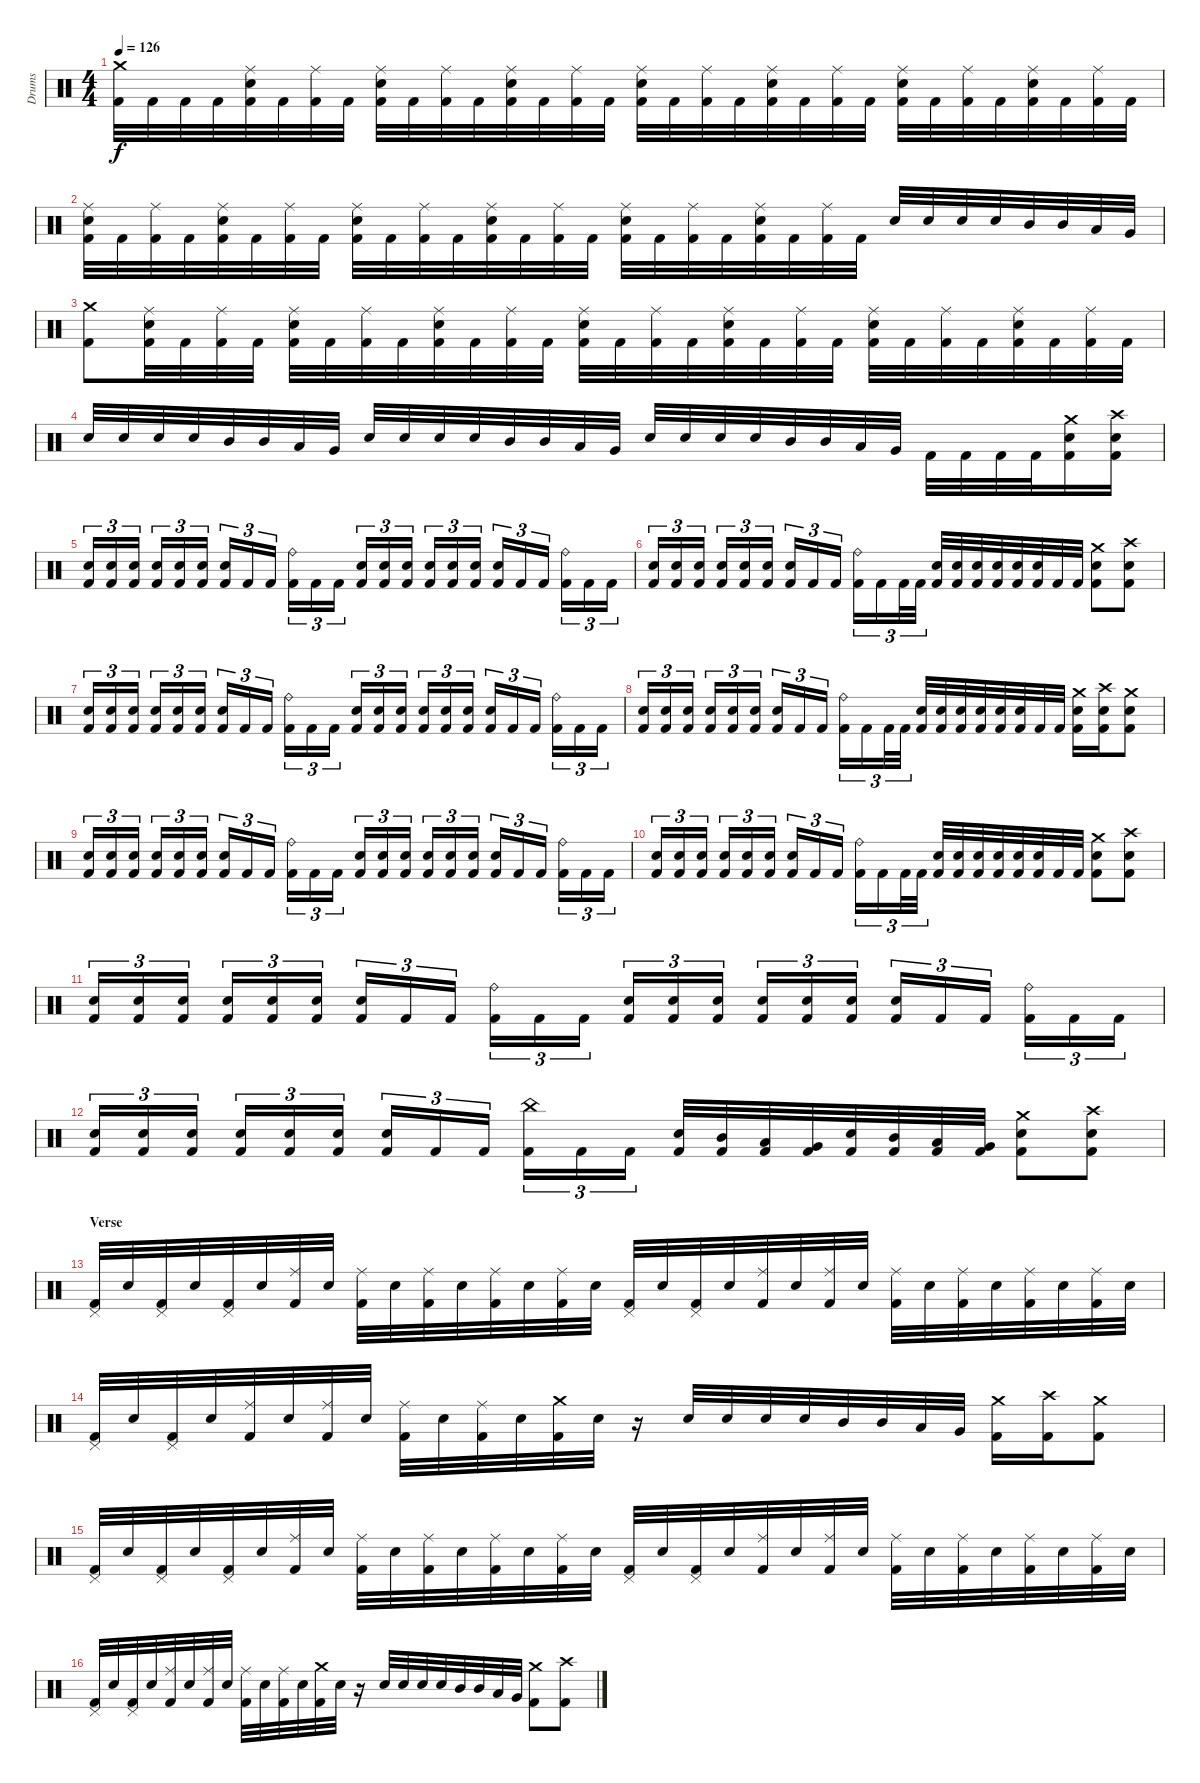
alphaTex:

\track ("Drums" "Drums") {instrument percussion}
\staff {score}
\articulation defaults
\ts (4 4)
\tempo 126
\clef neutral
\ks c
("Crash medium (hit)" "Kick (hit) 2").32{dy f} "Kick (hit) 2".32 "Kick (hit) 2".32 "Kick (hit) 2".32 ("Ride (middle)" "Electric Snare (hit)" "Kick (hit) 2").32 "Kick (hit) 2".32 ("Ride (middle)" "Kick (hit) 2").32 "Kick (hit) 2".32 ("Ride (middle)" "Electric Snare (hit)" "Kick (hit) 2").32 "Kick (hit) 2".32 ("Ride (middle)" "Kick (hit) 2").32 "Kick (hit) 2".32 ("Ride (middle)" "Electric Snare (hit)" "Kick (hit) 2").32 "Kick (hit) 2".32 ("Ride (middle)" "Kick (hit) 2").32 "Kick (hit) 2".32 ("Ride (middle)" "Electric Snare (hit)" "Kick (hit) 2").32 "Kick (hit) 2".32 ("Ride (middle)" "Kick (hit) 2").32 "Kick (hit) 2".32 ("Ride (middle)" "Electric Snare (hit)" "Kick (hit) 2").32 "Kick (hit) 2".32 ("Ride (middle)" "Kick (hit) 2").32 "Kick (hit) 2".32 ("Ride (middle)" "Electric Snare (hit)" "Kick (hit) 2").32 "Kick (hit) 2".32 ("Ride (middle)" "Kick (hit) 2").32 "Kick (hit) 2".32 ("Ride (middle)" "Electric Snare (hit)" "Kick (hit) 2").32 "Kick (hit) 2".32 ("Ride (middle)" "Kick (hit) 2").32 "Kick (hit) 2".32 |
("Ride (middle)" "Electric Snare (hit)" "Kick (hit) 2").32 "Kick (hit) 2".32 ("Ride (middle)" "Kick (hit) 2").32 "Kick (hit) 2".32 ("Ride (middle)" "Electric Snare (hit)" "Kick (hit) 2").32 "Kick (hit) 2".32 ("Ride (middle)" "Kick (hit) 2").32 "Kick (hit) 2".32 ("Ride (middle)" "Electric Snare (hit)" "Kick (hit) 2").32 "Kick (hit) 2".32 ("Ride (middle)" "Kick (hit) 2").32 "Kick (hit) 2".32 ("Ride (middle)" "Electric Snare (hit)" "Kick (hit) 2").32 "Kick (hit) 2".32 ("Ride (middle)" "Kick (hit) 2").32 "Kick (hit) 2".32 ("Ride (middle)" "Electric Snare (hit)" "Kick (hit) 2").32 "Kick (hit) 2".32 ("Ride (middle)" "Kick (hit) 2").32 "Kick (hit) 2".32 ("Ride (middle)" "Electric Snare (hit)" "Kick (hit) 2").32 "Kick (hit) 2".32 ("Ride (middle)" "Kick (hit) 2").32 "Kick (hit) 2".32 "Electric Snare (hit)".32 "Electric Snare (hit)".32 "Electric Snare (hit)".32 "Electric Snare (hit)".32 "Mid Tom (hit)".32 "Mid Tom (hit)".32 "Low Tom (hit)".32 "Very Low Tom (hit)".32 |
("Crash medium (hit)" "Kick (hit) 2").8 ("Ride (middle)" "Electric Snare (hit)" "Kick (hit) 2").32 "Kick (hit) 2".32 ("Ride (middle)" "Kick (hit) 2").32 "Kick (hit) 2".32 ("Ride (middle)" "Electric Snare (hit)" "Kick (hit) 2").32 "Kick (hit) 2".32 ("Ride (middle)" "Kick (hit) 2").32 "Kick (hit) 2".32 ("Ride (middle)" "Electric Snare (hit)" "Kick (hit) 2").32 "Kick (hit) 2".32 ("Ride (middle)" "Kick (hit) 2").32 "Kick (hit) 2".32 ("Ride (middle)" "Electric Snare (hit)" "Kick (hit) 2").32 "Kick (hit) 2".32 ("Ride (middle)" "Kick (hit) 2").32 "Kick (hit) 2".32 ("Ride (middle)" "Electric Snare (hit)" "Kick (hit) 2").32 "Kick (hit) 2".32 ("Ride (middle)" "Kick (hit) 2").32 "Kick (hit) 2".32 ("Ride (middle)" "Electric Snare (hit)" "Kick (hit) 2").32 "Kick (hit) 2".32 ("Ride (middle)" "Kick (hit) 2").32 "Kick (hit) 2".32 ("Ride (middle)" "Electric Snare (hit)" "Kick (hit) 2").32 "Kick (hit) 2".32 ("Ride (middle)" "Kick (hit) 2").32 "Kick (hit) 2".32 |
"Electric Snare (hit)".32 "Electric Snare (hit)".32 "Electric Snare (hit)".32 "Electric Snare (hit)".32 "Mid Tom (hit)".32 "Mid Tom (hit)".32 "Low Tom (hit)".32 "Very Low Tom (hit)".32 "Electric Snare (hit)".32 "Electric Snare (hit)".32 "Electric Snare (hit)".32 "Electric Snare (hit)".32 "Mid Tom (hit)".32 "Mid Tom (hit)".32 "Low Tom (hit)".32 "Very Low Tom (hit)".32 "Electric Snare (hit)".32 "Electric Snare (hit)".32 "Electric Snare (hit)".32 "Electric Snare (hit)".32 "Mid Tom (hit)".32 "Mid Tom (hit)".32 "Low Tom (hit)".32 "Very Low Tom (hit)".32 "Kick (hit) 2".32 "Kick (hit) 2".32 "Kick (hit) 2".32 "Kick (hit) 2".32 ("Crash medium (hit)" "Electric Snare (hit)" "Kick (hit) 2").16 ("Crash high (hit)" "Electric Snare (hit)" "Kick (hit) 2").16 |
\section ("" "")
("Electric Snare (hit)" "Kick (hit) 2").16{tu (3 2)} ("Electric Snare (hit)" "Kick (hit) 2").16{tu (3 2)} ("Electric Snare (hit)" "Kick (hit) 2").16{tu (3 2)} ("Electric Snare (hit)" "Kick (hit) 2").16{tu (3 2)} ("Electric Snare (hit)" "Kick (hit) 2").16{tu (3 2)} ("Electric Snare (hit)" "Kick (hit) 2").16{tu (3 2)} ("Electric Snare (hit)" "Kick (hit) 2").16{tu (3 2)} "Kick (hit) 2".16{tu (3 2)} "Kick (hit) 2".16{tu (3 2)} ("Ride (bell)" "Kick (hit) 2").16{tu (3 2)} "Kick (hit) 2".16{tu (3 2)} "Kick (hit) 2".16{tu (3 2)} ("Electric Snare (hit)" "Kick (hit) 2").16{tu (3 2)} ("Electric Snare (hit)" "Kick (hit) 2").16{tu (3 2)} ("Electric Snare (hit)" "Kick (hit) 2").16{tu (3 2)} ("Electric Snare (hit)" "Kick (hit) 2").16{tu (3 2)} ("Electric Snare (hit)" "Kick (hit) 2").16{tu (3 2)} ("Electric Snare (hit)" "Kick (hit) 2").16{tu (3 2)} ("Electric Snare (hit)" "Kick (hit) 2").16{tu (3 2)} "Kick (hit) 2".16{tu (3 2)} "Kick (hit) 2".16{tu (3 2)} ("Ride (bell)" "Kick (hit) 2").16{tu (3 2)} "Kick (hit) 2".16{tu (3 2)} "Kick (hit) 2".16{tu (3 2)} |
("Electric Snare (hit)" "Kick (hit) 2").16{tu (3 2)} ("Electric Snare (hit)" "Kick (hit) 2").16{tu (3 2)} ("Electric Snare (hit)" "Kick (hit) 2").16{tu (3 2)} ("Electric Snare (hit)" "Kick (hit) 2").16{tu (3 2)} ("Electric Snare (hit)" "Kick (hit) 2").16{tu (3 2)} ("Electric Snare (hit)" "Kick (hit) 2").16{tu (3 2)} ("Electric Snare (hit)" "Kick (hit) 2").16{tu (3 2)} "Kick (hit) 2".16{tu (3 2)} "Kick (hit) 2".16{tu (3 2)} ("Ride (bell)" "Kick (hit) 2").16{tu (3 2)} "Kick (hit) 2".16{tu (3 2)} "Kick (hit) 2".32{tu (3 2)} "Kick (hit) 2".32{tu (3 2)} ("Electric Snare (hit)" "Kick (hit) 2").32 ("Electric Snare (hit)" "Kick (hit) 2").32 ("Electric Snare (hit)" "Kick (hit) 2").32 ("Electric Snare (hit)" "Kick (hit) 2").32 ("Electric Snare (hit)" "Kick (hit) 2").32 ("Electric Snare (hit)" "Kick (hit) 2").32 "Kick (hit) 2".32 "Kick (hit) 2".32 ("Crash medium (hit)" "Electric Snare (hit)" "Kick (hit) 2").8 ("Crash high (hit)" "Electric Snare (hit)" "Kick (hit) 2").8 |
("Electric Snare (hit)" "Kick (hit) 2").16{tu (3 2)} ("Electric Snare (hit)" "Kick (hit) 2").16{tu (3 2)} ("Electric Snare (hit)" "Kick (hit) 2").16{tu (3 2)} ("Electric Snare (hit)" "Kick (hit) 2").16{tu (3 2)} ("Electric Snare (hit)" "Kick (hit) 2").16{tu (3 2)} ("Electric Snare (hit)" "Kick (hit) 2").16{tu (3 2)} ("Electric Snare (hit)" "Kick (hit) 2").16{tu (3 2)} "Kick (hit) 2".16{tu (3 2)} "Kick (hit) 2".16{tu (3 2)} ("Ride (bell)" "Kick (hit) 2").16{tu (3 2)} "Kick (hit) 2".16{tu (3 2)} "Kick (hit) 2".16{tu (3 2)} ("Electric Snare (hit)" "Kick (hit) 2").16{tu (3 2)} ("Electric Snare (hit)" "Kick (hit) 2").16{tu (3 2)} ("Electric Snare (hit)" "Kick (hit) 2").16{tu (3 2)} ("Electric Snare (hit)" "Kick (hit) 2").16{tu (3 2)} ("Electric Snare (hit)" "Kick (hit) 2").16{tu (3 2)} ("Electric Snare (hit)" "Kick (hit) 2").16{tu (3 2)} ("Electric Snare (hit)" "Kick (hit) 2").16{tu (3 2)} "Kick (hit) 2".16{tu (3 2)} "Kick (hit) 2".16{tu (3 2)} ("Ride (bell)" "Kick (hit) 2").16{tu (3 2)} "Kick (hit) 2".16{tu (3 2)} "Kick (hit) 2".16{tu (3 2)} |
("Electric Snare (hit)" "Kick (hit) 2").16{tu (3 2)} ("Electric Snare (hit)" "Kick (hit) 2").16{tu (3 2)} ("Electric Snare (hit)" "Kick (hit) 2").16{tu (3 2)} ("Electric Snare (hit)" "Kick (hit) 2").16{tu (3 2)} ("Electric Snare (hit)" "Kick (hit) 2").16{tu (3 2)} ("Electric Snare (hit)" "Kick (hit) 2").16{tu (3 2)} ("Electric Snare (hit)" "Kick (hit) 2").16{tu (3 2)} "Kick (hit) 2".16{tu (3 2)} "Kick (hit) 2".16{tu (3 2)} ("Ride (bell)" "Kick (hit) 2").16{tu (3 2)} "Kick (hit) 2".16{tu (3 2)} "Kick (hit) 2".32{tu (3 2)} "Kick (hit) 2".32{tu (3 2)} ("Electric Snare (hit)" "Kick (hit) 2").32 ("Electric Snare (hit)" "Kick (hit) 2").32 ("Electric Snare (hit)" "Kick (hit) 2").32 ("Electric Snare (hit)" "Kick (hit) 2").32 ("Electric Snare (hit)" "Kick (hit) 2").32 ("Electric Snare (hit)" "Kick (hit) 2").32 "Kick (hit) 2".32 "Kick (hit) 2".32 ("Crash medium (hit)" "Electric Snare (hit)" "Kick (hit) 2").16 ("Crash high (hit)" "Electric Snare (hit)" "Kick (hit) 2").16 ("Crash medium (hit)" "Electric Snare (hit)" "Kick (hit) 2").8 |
("Electric Snare (hit)" "Kick (hit) 2").16{tu (3 2)} ("Electric Snare (hit)" "Kick (hit) 2").16{tu (3 2)} ("Electric Snare (hit)" "Kick (hit) 2").16{tu (3 2)} ("Electric Snare (hit)" "Kick (hit) 2").16{tu (3 2)} ("Electric Snare (hit)" "Kick (hit) 2").16{tu (3 2)} ("Electric Snare (hit)" "Kick (hit) 2").16{tu (3 2)} ("Electric Snare (hit)" "Kick (hit) 2").16{tu (3 2)} "Kick (hit) 2".16{tu (3 2)} "Kick (hit) 2".16{tu (3 2)} ("Ride (bell)" "Kick (hit) 2").16{tu (3 2)} "Kick (hit) 2".16{tu (3 2)} "Kick (hit) 2".16{tu (3 2)} ("Electric Snare (hit)" "Kick (hit) 2").16{tu (3 2)} ("Electric Snare (hit)" "Kick (hit) 2").16{tu (3 2)} ("Electric Snare (hit)" "Kick (hit) 2").16{tu (3 2)} ("Electric Snare (hit)" "Kick (hit) 2").16{tu (3 2)} ("Electric Snare (hit)" "Kick (hit) 2").16{tu (3 2)} ("Electric Snare (hit)" "Kick (hit) 2").16{tu (3 2)} ("Electric Snare (hit)" "Kick (hit) 2").16{tu (3 2)} "Kick (hit) 2".16{tu (3 2)} "Kick (hit) 2".16{tu (3 2)} ("Ride (bell)" "Kick (hit) 2").16{tu (3 2)} "Kick (hit) 2".16{tu (3 2)} "Kick (hit) 2".16{tu (3 2)} |
("Electric Snare (hit)" "Kick (hit) 2").16{tu (3 2)} ("Electric Snare (hit)" "Kick (hit) 2").16{tu (3 2)} ("Electric Snare (hit)" "Kick (hit) 2").16{tu (3 2)} ("Electric Snare (hit)" "Kick (hit) 2").16{tu (3 2)} ("Electric Snare (hit)" "Kick (hit) 2").16{tu (3 2)} ("Electric Snare (hit)" "Kick (hit) 2").16{tu (3 2)} ("Electric Snare (hit)" "Kick (hit) 2").16{tu (3 2)} "Kick (hit) 2".16{tu (3 2)} "Kick (hit) 2".16{tu (3 2)} ("Ride (bell)" "Kick (hit) 2").16{tu (3 2)} "Kick (hit) 2".16{tu (3 2)} "Kick (hit) 2".32{tu (3 2)} "Kick (hit) 2".32{tu (3 2)} ("Electric Snare (hit)" "Kick (hit) 2").32 ("Electric Snare (hit)" "Kick (hit) 2").32 ("Electric Snare (hit)" "Kick (hit) 2").32 ("Electric Snare (hit)" "Kick (hit) 2").32 ("Electric Snare (hit)" "Kick (hit) 2").32 ("Electric Snare (hit)" "Kick (hit) 2").32 "Kick (hit) 2".32 "Kick (hit) 2".32 ("Crash medium (hit)" "Electric Snare (hit)" "Kick (hit) 2").8 ("Crash high (hit)" "Electric Snare (hit)" "Kick (hit) 2").8 |
("Electric Snare (hit)" "Kick (hit) 2").16{tu (3 2)} ("Electric Snare (hit)" "Kick (hit) 2").16{tu (3 2)} ("Electric Snare (hit)" "Kick (hit) 2").16{tu (3 2)} ("Electric Snare (hit)" "Kick (hit) 2").16{tu (3 2)} ("Electric Snare (hit)" "Kick (hit) 2").16{tu (3 2)} ("Electric Snare (hit)" "Kick (hit) 2").16{tu (3 2)} ("Electric Snare (hit)" "Kick (hit) 2").16{tu (3 2)} "Kick (hit) 2".16{tu (3 2)} "Kick (hit) 2".16{tu (3 2)} ("Ride (bell)" "Kick (hit) 2").16{tu (3 2)} "Kick (hit) 2".16{tu (3 2)} "Kick (hit) 2".16{tu (3 2)} ("Electric Snare (hit)" "Kick (hit) 2").16{tu (3 2)} ("Electric Snare (hit)" "Kick (hit) 2").16{tu (3 2)} ("Electric Snare (hit)" "Kick (hit) 2").16{tu (3 2)} ("Electric Snare (hit)" "Kick (hit) 2").16{tu (3 2)} ("Electric Snare (hit)" "Kick (hit) 2").16{tu (3 2)} ("Electric Snare (hit)" "Kick (hit) 2").16{tu (3 2)} ("Electric Snare (hit)" "Kick (hit) 2").16{tu (3 2)} "Kick (hit) 2".16{tu (3 2)} "Kick (hit) 2".16{tu (3 2)} ("Ride (bell)" "Kick (hit) 2").16{tu (3 2)} "Kick (hit) 2".16{tu (3 2)} "Kick (hit) 2".16{tu (3 2)} |
("Electric Snare (hit)" "Kick (hit) 2").16{tu (3 2)} ("Electric Snare (hit)" "Kick (hit) 2").16{tu (3 2)} ("Electric Snare (hit)" "Kick (hit) 2").16{tu (3 2)} ("Electric Snare (hit)" "Kick (hit) 2").16{tu (3 2)} ("Electric Snare (hit)" "Kick (hit) 2").16{tu (3 2)} ("Electric Snare (hit)" "Kick (hit) 2").16{tu (3 2)} ("Electric Snare (hit)" "Kick (hit) 2").16{tu (3 2)} "Kick (hit) 2".16{tu (3 2)} "Kick (hit) 2".16{tu (3 2)} ("China (hit)" "Kick (hit) 2").16{tu (3 2)} "Kick (hit) 2".16{tu (3 2)} "Kick (hit) 2".16{tu (3 2)} ("Electric Snare (hit)" "Kick (hit) 2").32 ("Mid Tom (hit)" "Kick (hit) 2").32 ("Low Tom (hit)" "Kick (hit) 2").32 ("Very Low Tom (hit)" "Kick (hit) 2").32 ("Electric Snare (hit)" "Kick (hit) 2").32 ("Mid Tom (hit)" "Kick (hit) 2").32 ("Low Tom (hit)" "Kick (hit) 2").32 ("Very Low Tom (hit)" "Kick (hit) 2").32 ("Crash medium (hit)" "Electric Snare (hit)" "Kick (hit) 2").8 ("Crash high (hit)" "Electric Snare (hit)" "Kick (hit) 2").8 |
\section ("" "Verse")
("Pedal Hi-Hat (hit)" "Kick (hit) 2").32 "Electric Snare (hit)".32 ("Pedal Hi-Hat (hit)" "Kick (hit) 2").32 "Electric Snare (hit)".32 ("Pedal Hi-Hat (hit)" "Kick (hit) 2").32 "Electric Snare (hit)".32 ("Ride (middle)" "Kick (hit) 2").32 "Electric Snare (hit)".32 ("Ride (middle)" "Kick (hit) 2").32 "Electric Snare (hit)".32 ("Ride (middle)" "Kick (hit) 2").32 "Electric Snare (hit)".32 ("Ride (middle)" "Kick (hit) 2").32 "Electric Snare (hit)".32 ("Ride (middle)" "Kick (hit) 2").32 "Electric Snare (hit)".32 ("Pedal Hi-Hat (hit)" "Kick (hit) 2").32 "Electric Snare (hit)".32 ("Pedal Hi-Hat (hit)" "Kick (hit) 2").32 "Electric Snare (hit)".32 ("Ride (middle)" "Kick (hit) 2").32 "Electric Snare (hit)".32 ("Ride (middle)" "Kick (hit) 2").32 "Electric Snare (hit)".32 ("Ride (middle)" "Kick (hit) 2").32 "Electric Snare (hit)".32 ("Ride (middle)" "Kick (hit) 2").32 "Electric Snare (hit)".32 ("Ride (middle)" "Kick (hit) 2").32 "Electric Snare (hit)".32 ("Ride (middle)" "Kick (hit) 2").32 "Electric Snare (hit)".32 |
("Pedal Hi-Hat (hit)" "Kick (hit) 2").32 "Electric Snare (hit)".32 ("Pedal Hi-Hat (hit)" "Kick (hit) 2").32 "Electric Snare (hit)".32 ("Ride (middle)" "Kick (hit) 2").32 "Electric Snare (hit)".32 ("Ride (middle)" "Kick (hit) 2").32 "Electric Snare (hit)".32 ("Ride (middle)" "Kick (hit) 2").32 "Electric Snare (hit)".32 ("Ride (middle)" "Kick (hit) 2").32 "Electric Snare (hit)".32 ("Crash medium (hit)" "Kick (hit) 2").32 "Electric Snare (hit)".32 r.16 "Electric Snare (hit)".32 "Electric Snare (hit)".32 "Electric Snare (hit)".32 "Electric Snare (hit)".32 "Mid Tom (hit)".32 "Mid Tom (hit)".32 "Low Tom (hit)".32 "Very Low Tom (hit)".32 ("Crash medium (hit)" "Kick (hit) 2").16 ("Crash high (hit)" "Kick (hit) 2").16 ("Crash medium (hit)" "Kick (hit) 2").8 |
("Pedal Hi-Hat (hit)" "Kick (hit) 2").32 "Electric Snare (hit)".32 ("Pedal Hi-Hat (hit)" "Kick (hit) 2").32 "Electric Snare (hit)".32 ("Pedal Hi-Hat (hit)" "Kick (hit) 2").32 "Electric Snare (hit)".32 ("Ride (middle)" "Kick (hit) 2").32 "Electric Snare (hit)".32 ("Ride (middle)" "Kick (hit) 2").32 "Electric Snare (hit)".32 ("Ride (middle)" "Kick (hit) 2").32 "Electric Snare (hit)".32 ("Ride (middle)" "Kick (hit) 2").32 "Electric Snare (hit)".32 ("Ride (middle)" "Kick (hit) 2").32 "Electric Snare (hit)".32 ("Pedal Hi-Hat (hit)" "Kick (hit) 2").32 "Electric Snare (hit)".32 ("Pedal Hi-Hat (hit)" "Kick (hit) 2").32 "Electric Snare (hit)".32 ("Ride (middle)" "Kick (hit) 2").32 "Electric Snare (hit)".32 ("Ride (middle)" "Kick (hit) 2").32 "Electric Snare (hit)".32 ("Ride (middle)" "Kick (hit) 2").32 "Electric Snare (hit)".32 ("Ride (middle)" "Kick (hit) 2").32 "Electric Snare (hit)".32 ("Ride (middle)" "Kick (hit) 2").32 "Electric Snare (hit)".32 ("Ride (middle)" "Kick (hit) 2").32 "Electric Snare (hit)".32 |
("Pedal Hi-Hat (hit)" "Kick (hit) 2").32 "Electric Snare (hit)".32 ("Pedal Hi-Hat (hit)" "Kick (hit) 2").32 "Electric Snare (hit)".32 ("Ride (middle)" "Kick (hit) 2").32 "Electric Snare (hit)".32 ("Ride (middle)" "Kick (hit) 2").32 "Electric Snare (hit)".32 ("Ride (middle)" "Kick (hit) 2").32 "Electric Snare (hit)".32 ("Ride (middle)" "Kick (hit) 2").32 "Electric Snare (hit)".32 ("Crash medium (hit)" "Kick (hit) 2").32 "Electric Snare (hit)".32 r.16 "Electric Snare (hit)".32 "Electric Snare (hit)".32 "Electric Snare (hit)".32 "Electric Snare (hit)".32 "Mid Tom (hit)".32 "Mid Tom (hit)".32 "Low Tom (hit)".32 "Very Low Tom (hit)".32 ("Crash medium (hit)" "Kick (hit) 2").8 ("Crash high (hit)" "Kick (hit) 2").8
